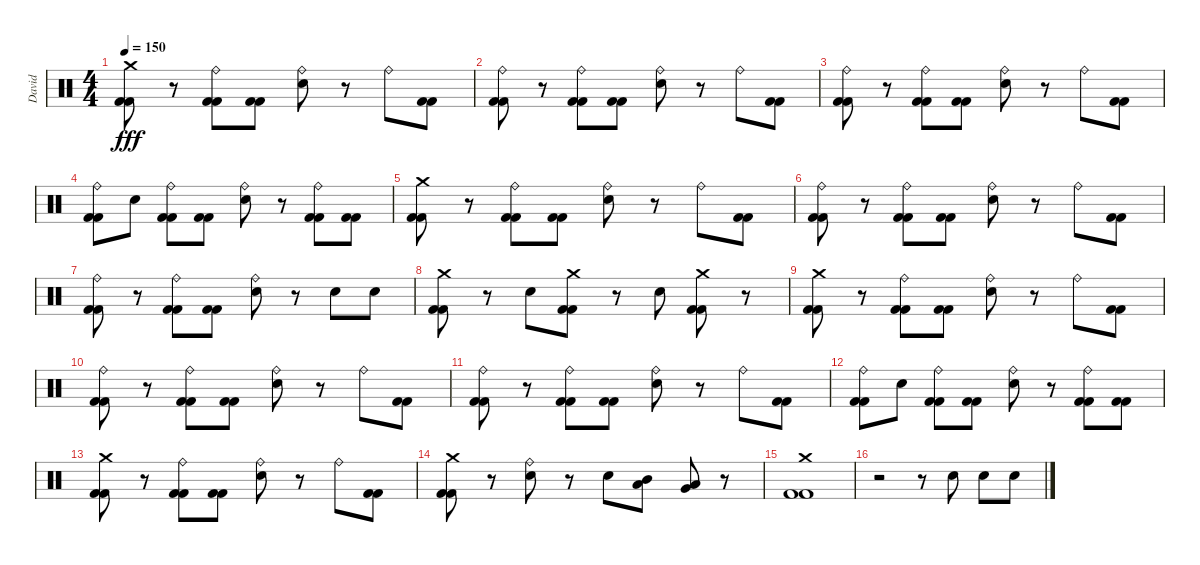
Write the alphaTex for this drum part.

\track ("David" "David") {instrument percussion}
\staff {score}
\articulation defaults
\ts (4 4)
\tempo 150
\clef neutral
\ks c
("Crash medium (hit)" "Kick (hit) 2" "Kick (hit) 2").8{dy fff} r.8 ("Ride (bell)" "Kick (hit) 2" "Kick (hit) 2").8 ("Kick (hit) 2" "Kick (hit) 2").8 ("Ride (bell)" "Electric Snare (hit)").8 r.8 "Ride (bell)".8 ("Kick (hit) 2" "Kick (hit) 2").8 |
("Ride (bell)" "Kick (hit) 2" "Kick (hit) 2").8 r.8 ("Ride (bell)" "Kick (hit) 2" "Kick (hit) 2").8 ("Kick (hit) 2" "Kick (hit) 2").8 ("Ride (bell)" "Electric Snare (hit)").8 r.8 "Ride (bell)".8 ("Kick (hit) 2" "Kick (hit) 2").8 |
("Ride (bell)" "Kick (hit) 2" "Kick (hit) 2").8 r.8 ("Ride (bell)" "Kick (hit) 2" "Kick (hit) 2").8 ("Kick (hit) 2" "Kick (hit) 2").8 ("Ride (bell)" "Electric Snare (hit)").8 r.8 "Ride (bell)".8 ("Kick (hit) 2" "Kick (hit) 2").8 |
("Ride (bell)" "Kick (hit) 2" "Kick (hit) 2").8 "Electric Snare (hit)".8 ("Ride (bell)" "Kick (hit) 2" "Kick (hit) 2").8 ("Kick (hit) 2" "Kick (hit) 2").8 ("Ride (bell)" "Electric Snare (hit)").8 r.8 ("Ride (bell)" "Kick (hit) 2" "Kick (hit) 2").8 ("Kick (hit) 2" "Kick (hit) 2").8 |
("Crash medium (hit)" "Kick (hit) 2" "Kick (hit) 2").8 r.8 ("Ride (bell)" "Kick (hit) 2" "Kick (hit) 2").8 ("Kick (hit) 2" "Kick (hit) 2").8 ("Ride (bell)" "Electric Snare (hit)").8 r.8 "Ride (bell)".8 ("Kick (hit) 2" "Kick (hit) 2").8 |
("Ride (bell)" "Kick (hit) 2" "Kick (hit) 2").8 r.8 ("Ride (bell)" "Kick (hit) 2" "Kick (hit) 2").8 ("Kick (hit) 2" "Kick (hit) 2").8 ("Ride (bell)" "Electric Snare (hit)").8 r.8 "Ride (bell)".8 ("Kick (hit) 2" "Kick (hit) 2").8 |
("Ride (bell)" "Kick (hit) 2" "Kick (hit) 2").8 r.8 ("Ride (bell)" "Kick (hit) 2" "Kick (hit) 2").8 ("Kick (hit) 2" "Kick (hit) 2").8 ("Ride (bell)" "Electric Snare (hit)").8 r.8 "Electric Snare (hit)".8 "Electric Snare (hit)".8 |
("Crash medium (hit)" "Kick (hit) 2" "Kick (hit) 2").8 r.8 "Electric Snare (hit)".8 ("Crash medium (hit)" "Kick (hit) 2" "Kick (hit) 2").8 r.8 "Electric Snare (hit)".8 ("Crash medium (hit)" "Kick (hit) 2" "Kick (hit) 2").8 r.8 |
("Crash medium (hit)" "Kick (hit) 2" "Kick (hit) 2").8 r.8 ("Ride (bell)" "Kick (hit) 2" "Kick (hit) 2").8 ("Kick (hit) 2" "Kick (hit) 2").8 ("Ride (bell)" "Electric Snare (hit)").8 r.8 "Ride (bell)".8 ("Kick (hit) 2" "Kick (hit) 2").8 |
("Ride (bell)" "Kick (hit) 2" "Kick (hit) 2").8 r.8 ("Ride (bell)" "Kick (hit) 2" "Kick (hit) 2").8 ("Kick (hit) 2" "Kick (hit) 2").8 ("Ride (bell)" "Electric Snare (hit)").8 r.8 "Ride (bell)".8 ("Kick (hit) 2" "Kick (hit) 2").8 |
("Ride (bell)" "Kick (hit) 2" "Kick (hit) 2").8 r.8 ("Ride (bell)" "Kick (hit) 2" "Kick (hit) 2").8 ("Kick (hit) 2" "Kick (hit) 2").8 ("Ride (bell)" "Electric Snare (hit)").8 r.8 "Ride (bell)".8 ("Kick (hit) 2" "Kick (hit) 2").8 |
("Ride (bell)" "Kick (hit) 2" "Kick (hit) 2").8 "Electric Snare (hit)".8 ("Ride (bell)" "Kick (hit) 2" "Kick (hit) 2").8 ("Kick (hit) 2" "Kick (hit) 2").8 ("Ride (bell)" "Electric Snare (hit)").8 r.8 ("Ride (bell)" "Kick (hit) 2" "Kick (hit) 2").8 ("Kick (hit) 2" "Kick (hit) 2").8 |
("Crash medium (hit)" "Kick (hit) 2" "Kick (hit) 2").8 r.8 ("Ride (bell)" "Kick (hit) 2" "Kick (hit) 2").8 ("Kick (hit) 2" "Kick (hit) 2").8 ("Ride (bell)" "Electric Snare (hit)").8 r.8 "Ride (bell)".8 ("Kick (hit) 2" "Kick (hit) 2").8 |
("Crash medium (hit)" "Kick (hit) 2" "Kick (hit) 2").8 r.8 ("Ride (bell)" "Electric Snare (hit)").8 r.8 "Electric Snare (hit)".8 ("Mid Tom (hit)" "Low Tom (hit)").8 ("Low Floor Tom (hit)" "Very Low Tom (hit)").8 r.8 |
("Crash medium (hit)" "Kick (hit) 2" "Kick (hit) 2").1 |
r.2 r.8 "Electric Snare (hit)".8 "Electric Snare (hit)".8 "Electric Snare (hit)".8
